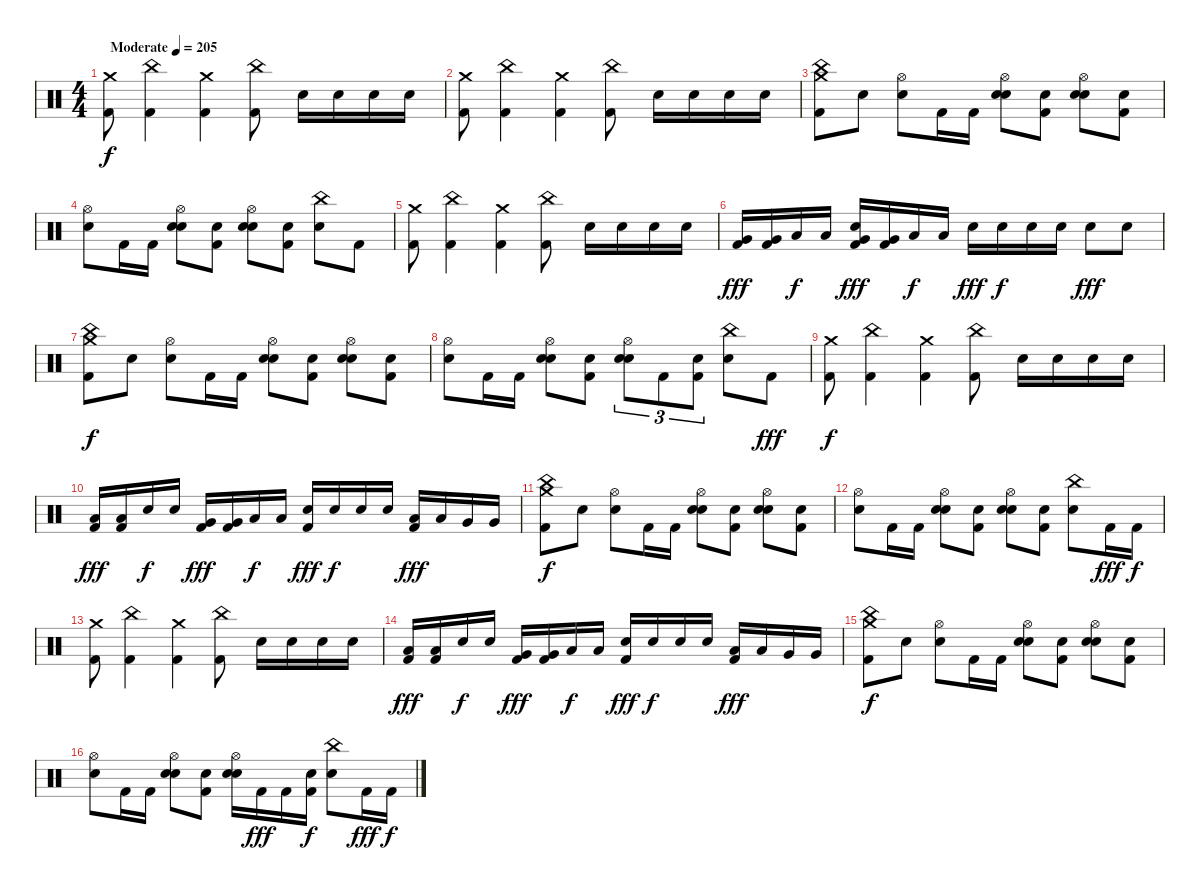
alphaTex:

\track "" {instrument percussion}
\staff {score}
\articulation defaults
\ts (4 4)
\tempo (205 "Moderate")
\clef neutral
\ks c
("Crash medium (hit)" "Kick (hit) 2").8{dy f} ("China (hit)" "Kick (hit) 2").4 ("Crash medium (hit)" "Kick (hit) 2").4 ("China (hit)" "Kick (hit) 2").8 "Electric Snare (hit)".16 "Electric Snare (hit)".16 "Electric Snare (hit)".16 "Electric Snare (hit)".16 |
("Crash medium (hit)" "Kick (hit) 2").8 ("China (hit)" "Kick (hit) 2").4 ("Crash medium (hit)" "Kick (hit) 2").4 ("China (hit)" "Kick (hit) 2").8 "Electric Snare (hit)".16 "Electric Snare (hit)".16 "Electric Snare (hit)".16 "Electric Snare (hit)".16 |
("China (hit)" "Crash medium (hit)" "Kick (hit) 2").8 "Snare (hit)".8 ("Electric Snare (hit)" "Hi-Hat (open)").8 "Kick (hit) 2".16 "Kick (hit) 2".16 ("Hi-Hat (open)" "Electric Snare (hit)" "Snare (hit)").8 ("Snare (hit)" "Kick (hit) 2").8 ("Hi-Hat (open)" "Electric Snare (hit)" "Snare (hit)").8 ("Snare (hit)" "Kick (hit) 2").8 |
("Electric Snare (hit)" "Hi-Hat (open)").8 "Kick (hit) 2".16 "Kick (hit) 2".16 ("Hi-Hat (open)" "Electric Snare (hit)" "Snare (hit)").8 ("Snare (hit)" "Kick (hit) 2").8 ("Hi-Hat (open)" "Electric Snare (hit)" "Snare (hit)").8 ("Snare (hit)" "Kick (hit) 2").8 ("China (hit)" "Electric Snare (hit)").8 "Kick (hit) 2".8 |
("Crash medium (hit)" "Kick (hit) 2").8 ("China (hit)" "Kick (hit) 2").4 ("Crash medium (hit)" "Kick (hit) 2").4 ("China (hit)" "Kick (hit) 2").8 "Electric Snare (hit)".16 "Electric Snare (hit)".16 "Electric Snare (hit)".16 "Electric Snare (hit)".16 |
("Very Low Tom (hit)" "Kick (hit) 2").16{dy fff} ("Very Low Tom (hit)" "Kick (hit) 2").16 "Low Tom (hit)".16{dy f} "Low Tom (hit)".16 ("Electric Snare (hit)" "Very Low Tom (hit)" "Kick (hit) 2").16{dy fff} ("Very Low Tom (hit)" "Kick (hit) 2").16 "Low Tom (hit)".16{dy f} "Low Tom (hit)".16 "Electric Snare (hit)".16{dy fff} "Electric Snare (hit)".16{dy f} "Electric Snare (hit)".16 "Electric Snare (hit)".16 "Electric Snare (hit)".8{dy fff} "Electric Snare (hit)".8 |
("China (hit)" "Crash medium (hit)" "Kick (hit) 2").8{dy f} "Snare (hit)".8 ("Electric Snare (hit)" "Hi-Hat (open)").8 "Kick (hit) 2".16 "Kick (hit) 2".16 ("Hi-Hat (open)" "Electric Snare (hit)" "Snare (hit)").8 ("Snare (hit)" "Kick (hit) 2").8 ("Hi-Hat (open)" "Electric Snare (hit)" "Snare (hit)").8 ("Snare (hit)" "Kick (hit) 2").8 |
("Electric Snare (hit)" "Hi-Hat (open)").8 "Kick (hit) 2".16 "Kick (hit) 2".16 ("Hi-Hat (open)" "Electric Snare (hit)" "Snare (hit)").8 ("Snare (hit)" "Kick (hit) 2").8 ("Hi-Hat (open)" "Electric Snare (hit)" "Snare (hit)").8{tu (3 2)} "Kick (hit) 2".8{tu (3 2)} ("Snare (hit)" "Kick (hit) 2").8{tu (3 2)} ("China (hit)" "Electric Snare (hit)").8 "Kick (hit) 2".8{dy fff} |
("Crash medium (hit)" "Kick (hit) 2").8{dy f} ("China (hit)" "Kick (hit) 2").4 ("Crash medium (hit)" "Kick (hit) 2").4 ("China (hit)" "Kick (hit) 2").8 "Electric Snare (hit)".16 "Electric Snare (hit)".16 "Electric Snare (hit)".16 "Electric Snare (hit)".16 |
("Low Tom (hit)" "Kick (hit) 2").16{dy fff} ("Low Tom (hit)" "Kick (hit) 2").16 "Electric Snare (hit)".16{dy f} "Electric Snare (hit)".16 ("Very Low Tom (hit)" "Kick (hit) 2").16{dy fff} ("Very Low Tom (hit)" "Kick (hit) 2").16 "Low Tom (hit)".16{dy f} "Low Tom (hit)".16 ("Electric Snare (hit)" "Kick (hit) 2").16{dy fff} "Electric Snare (hit)".16{dy f} "Electric Snare (hit)".16 "Electric Snare (hit)".16 ("Low Tom (hit)" "Kick (hit) 2").16{dy fff} "Low Tom (hit)".16 "Very Low Tom (hit)".16 "Very Low Tom (hit)".16 |
("China (hit)" "Crash medium (hit)" "Kick (hit) 2").8{dy f} "Snare (hit)".8 ("Electric Snare (hit)" "Hi-Hat (open)").8 "Kick (hit) 2".16 "Kick (hit) 2".16 ("Hi-Hat (open)" "Electric Snare (hit)" "Snare (hit)").8 ("Snare (hit)" "Kick (hit) 2").8 ("Hi-Hat (open)" "Electric Snare (hit)" "Snare (hit)").8 ("Snare (hit)" "Kick (hit) 2").8 |
("Electric Snare (hit)" "Hi-Hat (open)").8 "Kick (hit) 2".16 "Kick (hit) 2".16 ("Hi-Hat (open)" "Electric Snare (hit)" "Snare (hit)").8 ("Snare (hit)" "Kick (hit) 2").8 ("Hi-Hat (open)" "Electric Snare (hit)" "Snare (hit)").8 ("Snare (hit)" "Kick (hit) 2").8 ("China (hit)" "Electric Snare (hit)").8 "Kick (hit) 2".16{dy fff} "Kick (hit) 2".16{dy f} |
("Crash medium (hit)" "Kick (hit) 2").8 ("China (hit)" "Kick (hit) 2").4 ("Crash medium (hit)" "Kick (hit) 2").4 ("China (hit)" "Kick (hit) 2").8 "Electric Snare (hit)".16 "Electric Snare (hit)".16 "Electric Snare (hit)".16 "Electric Snare (hit)".16 |
("Low Tom (hit)" "Kick (hit) 2").16{dy fff} ("Low Tom (hit)" "Kick (hit) 2").16 "Electric Snare (hit)".16{dy f} "Electric Snare (hit)".16 ("Very Low Tom (hit)" "Kick (hit) 2").16{dy fff} ("Very Low Tom (hit)" "Kick (hit) 2").16 "Low Tom (hit)".16{dy f} "Low Tom (hit)".16 ("Electric Snare (hit)" "Kick (hit) 2").16{dy fff} "Electric Snare (hit)".16{dy f} "Electric Snare (hit)".16 "Electric Snare (hit)".16 ("Low Tom (hit)" "Kick (hit) 2").16{dy fff} "Low Tom (hit)".16 "Very Low Tom (hit)".16 "Very Low Tom (hit)".16 |
("China (hit)" "Crash medium (hit)" "Kick (hit) 2").8{dy f} "Snare (hit)".8 ("Electric Snare (hit)" "Hi-Hat (open)").8 "Kick (hit) 2".16 "Kick (hit) 2".16 ("Hi-Hat (open)" "Electric Snare (hit)" "Snare (hit)").8 ("Snare (hit)" "Kick (hit) 2").8 ("Hi-Hat (open)" "Electric Snare (hit)" "Snare (hit)").8 ("Snare (hit)" "Kick (hit) 2").8 |
("Electric Snare (hit)" "Hi-Hat (open)").8 "Kick (hit) 2".16 "Kick (hit) 2".16 ("Hi-Hat (open)" "Electric Snare (hit)" "Snare (hit)").8 ("Snare (hit)" "Kick (hit) 2").8 ("Hi-Hat (open)" "Electric Snare (hit)" "Snare (hit)").16 "Kick (hit) 2".16{dy fff} "Kick (hit) 2".16 ("Snare (hit)" "Kick (hit) 2").16{dy f} ("China (hit)" "Electric Snare (hit)").8 "Kick (hit) 2".16{dy fff} "Kick (hit) 2".16{dy f}
